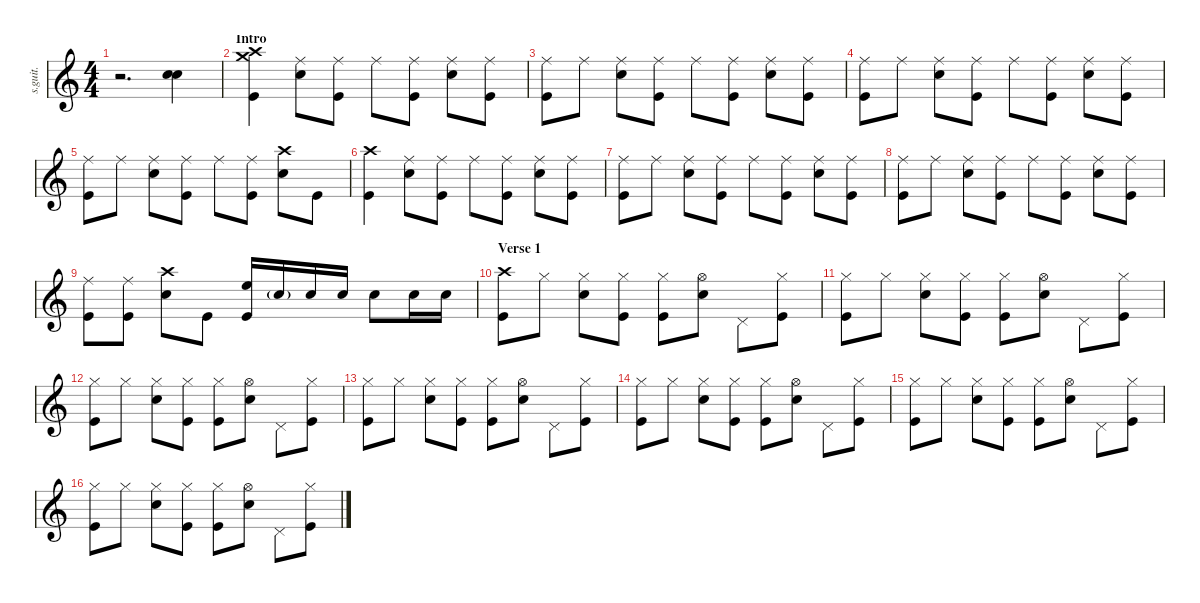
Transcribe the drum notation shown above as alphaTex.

\defaultSystemsLayout 4
\hideDynamics
\bracketExtendMode nobrackets
\track ("Dave Grohl" "s.guit.") {instrument percussion}
\staff {score}
\articulation defaults
\ts (4 4)
\beaming (8 2 2 2 2)
\tempo (136 hide)
\clef g2
\ks c
r.2{d dy f} ("Snare (hit) 2" "Snare (hit) 2").4{bd 30} |
\section ("" "Intro")
("Crash high (hit)" "Crash medium (hit)" "Kick (hit)").4 ("Ride (middle)" "Snare (hit) 2").8 ("Ride (middle)" "Kick (hit)").8 "Ride (middle)".8 ("Ride (middle)" "Kick (hit)").8 ("Ride (middle)" "Snare (hit) 2").8 ("Ride (middle)" "Kick (hit)").8 |
("Ride (middle)" "Kick (hit)").8 "Ride (middle)".8{dy ppp} ("Ride (middle)" "Snare (hit) 2").8{dy f} ("Ride (middle)" "Kick (hit)").8 "Ride (middle)".8 ("Ride (middle)" "Kick (hit)").8 ("Ride (middle)" "Snare (hit) 2").8 ("Ride (middle)" "Kick (hit)").8 |
("Ride (middle)" "Kick (hit)").8 "Ride (middle)".8{dy ppp} ("Ride (middle)" "Snare (hit) 2").8{dy f} ("Ride (middle)" "Kick (hit)").8 "Ride (middle)".8 ("Ride (middle)" "Kick (hit)").8 ("Ride (middle)" "Snare (hit) 2").8 ("Ride (middle)" "Kick (hit)").8 |
("Ride (middle)" "Kick (hit)").8 "Ride (middle)".8{dy ppp} ("Ride (middle)" "Snare (hit) 2").8{dy f} ("Ride (middle)" "Kick (hit)").8 "Ride (middle)".8 ("Ride (middle)" "Kick (hit)").8 ("Crash high (hit)" "Snare (hit) 2").8 "Kick (hit)".8 |
("Crash high (hit)" "Kick (hit)").4 ("Ride (middle)" "Snare (hit) 2").8 ("Ride (middle)" "Kick (hit)").8 "Ride (middle)".8 ("Ride (middle)" "Kick (hit)").8 ("Ride (middle)" "Snare (hit) 2").8 ("Ride (middle)" "Kick (hit)").8 |
("Ride (middle)" "Kick (hit)").8 "Ride (middle)".8{dy ppp} ("Ride (middle)" "Snare (hit) 2").8{dy f} ("Ride (middle)" "Kick (hit)").8 "Ride (middle)".8 ("Ride (middle)" "Kick (hit)").8 ("Ride (middle)" "Snare (hit) 2").8 ("Ride (middle)" "Kick (hit)").8 |
("Ride (middle)" "Kick (hit)").8 "Ride (middle)".8{dy ppp} ("Ride (middle)" "Snare (hit) 2").8{dy f} ("Ride (middle)" "Kick (hit)").8 "Ride (middle)".8 ("Ride (middle)" "Kick (hit)").8 ("Ride (middle)" "Snare (hit) 2").8 ("Ride (middle)" "Kick (hit)").8 |
("Ride (middle)" "Kick (hit)").8 ("Ride (middle)" "Kick (hit)").8 ("Crash high (hit)" "Snare (hit) 2").8 "Kick (hit)".8 ("High Floor Tom (hit)" "Kick (hit)").16 "Snare (hit) 2"{g}.16{dy pp} "Snare (hit) 2".16{dy f} "Snare (hit) 2".16 "Snare (hit) 2".8 "Snare (hit) 2".16 "Snare (hit) 2".16 |
\section ("" "Verse 1")
("Crash high (hit)" "Kick (hit)").8 "Hi-Hat (closed)".8{dy ppp} ("Hi-Hat (closed)" "Snare (hit) 2").8{dy f} ("Hi-Hat (closed)" "Kick (hit)").8 ("Hi-Hat (closed)" "Kick (hit)").8 ("Hi-Hat (open)" "Snare (hit) 2").8 "Pedal Hi-Hat (hit)".8 ("Hi-Hat (closed)" "Kick (hit)").8 |
("Hi-Hat (closed)" "Kick (hit)").8 "Hi-Hat (closed)".8{dy ppp} ("Hi-Hat (closed)" "Snare (hit) 2").8{dy f} ("Hi-Hat (closed)" "Kick (hit)").8 ("Hi-Hat (closed)" "Kick (hit)").8 ("Hi-Hat (open)" "Snare (hit) 2").8 "Pedal Hi-Hat (hit)".8 ("Hi-Hat (closed)" "Kick (hit)").8 |
("Hi-Hat (closed)" "Kick (hit)").8 "Hi-Hat (closed)".8{dy ppp} ("Hi-Hat (closed)" "Snare (hit) 2").8{dy f} ("Hi-Hat (closed)" "Kick (hit)").8 ("Hi-Hat (closed)" "Kick (hit)").8 ("Hi-Hat (open)" "Snare (hit) 2").8 "Pedal Hi-Hat (hit)".8 ("Hi-Hat (closed)" "Kick (hit)").8 |
("Hi-Hat (closed)" "Kick (hit)").8 "Hi-Hat (closed)".8{dy ppp} ("Hi-Hat (closed)" "Snare (hit) 2").8{dy f} ("Hi-Hat (closed)" "Kick (hit)").8 ("Hi-Hat (closed)" "Kick (hit)").8 ("Hi-Hat (open)" "Snare (hit) 2").8 "Pedal Hi-Hat (hit)".8 ("Hi-Hat (closed)" "Kick (hit)").8 |
("Hi-Hat (closed)" "Kick (hit)").8 "Hi-Hat (closed)".8{dy ppp} ("Hi-Hat (closed)" "Snare (hit) 2").8{dy f} ("Hi-Hat (closed)" "Kick (hit)").8 ("Hi-Hat (closed)" "Kick (hit)").8 ("Hi-Hat (open)" "Snare (hit) 2").8 "Pedal Hi-Hat (hit)".8 ("Hi-Hat (closed)" "Kick (hit)").8 |
("Hi-Hat (closed)" "Kick (hit)").8 "Hi-Hat (closed)".8{dy ppp} ("Hi-Hat (closed)" "Snare (hit) 2").8{dy f} ("Hi-Hat (closed)" "Kick (hit)").8 ("Hi-Hat (closed)" "Kick (hit)").8 ("Hi-Hat (open)" "Snare (hit) 2").8 "Pedal Hi-Hat (hit)".8 ("Hi-Hat (closed)" "Kick (hit)").8 |
("Hi-Hat (closed)" "Kick (hit)").8 "Hi-Hat (closed)".8{dy ppp} ("Hi-Hat (closed)" "Snare (hit) 2").8{dy f} ("Hi-Hat (closed)" "Kick (hit)").8 ("Hi-Hat (closed)" "Kick (hit)").8 ("Hi-Hat (open)" "Snare (hit) 2").8 "Pedal Hi-Hat (hit)".8 ("Hi-Hat (closed)" "Kick (hit)").8
